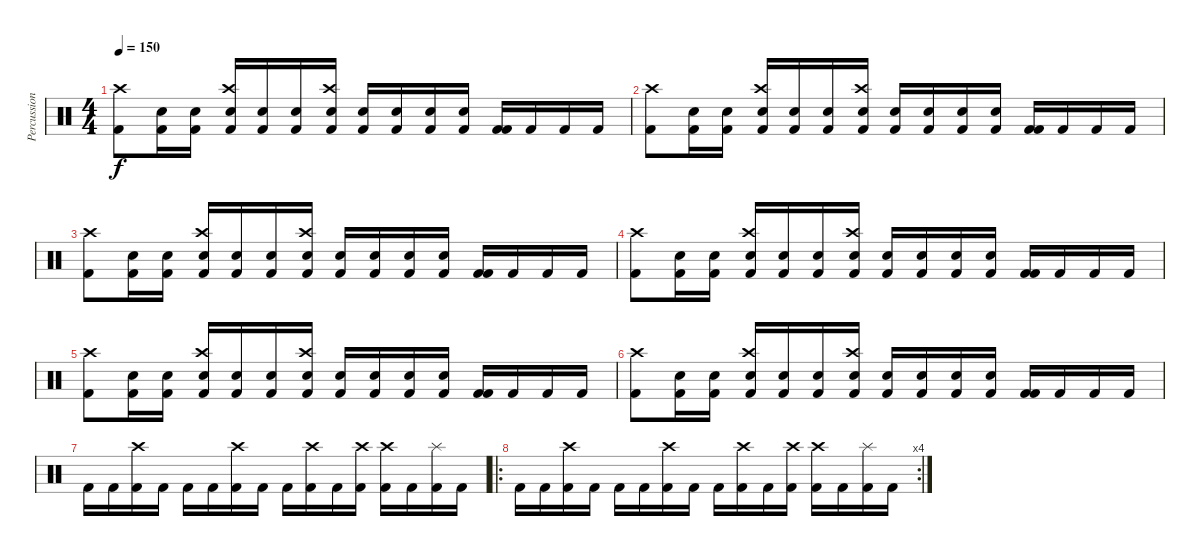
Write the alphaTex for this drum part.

\track ("Percussion" "Percussion") {instrument percussion}
\staff {score}
\articulation defaults
\ts (4 4)
\tempo 150
\clef neutral
\ks c
("Kick (hit) 2" "Crash high (hit)").8{dy f} ("Kick (hit) 2" "Snare (hit) 2").16 ("Snare (hit) 2" "Kick (hit) 2").16 ("Kick (hit) 2" "Snare (hit) 2" "Crash high (hit)").16 ("Snare (hit) 2" "Kick (hit) 2").16 ("Kick (hit) 2" "Snare (hit) 2").16 ("Snare (hit) 2" "Kick (hit) 2" "Crash high (hit)").16 ("Kick (hit) 2" "Snare (hit) 2").16 ("Kick (hit) 2" "Snare (hit) 2").16 ("Kick (hit) 2" "Snare (hit) 2").16 ("Kick (hit) 2" "Snare (hit) 2").16 ("Kick (hit) 2" "Kick (hit) 2").16 "Kick (hit) 2".16 "Kick (hit) 2".16 "Kick (hit) 2".16 |
("Kick (hit) 2" "Crash high (hit)").8 ("Kick (hit) 2" "Snare (hit) 2").16 ("Snare (hit) 2" "Kick (hit) 2").16 ("Kick (hit) 2" "Snare (hit) 2" "Crash high (hit)").16 ("Snare (hit) 2" "Kick (hit) 2").16 ("Kick (hit) 2" "Snare (hit) 2").16 ("Snare (hit) 2" "Kick (hit) 2" "Crash high (hit)").16 ("Kick (hit) 2" "Snare (hit) 2").16 ("Kick (hit) 2" "Snare (hit) 2").16 ("Kick (hit) 2" "Snare (hit) 2").16 ("Kick (hit) 2" "Snare (hit) 2").16 ("Kick (hit) 2" "Kick (hit) 2").16 "Kick (hit) 2".16 "Kick (hit) 2".16 "Kick (hit) 2".16 |
("Kick (hit) 2" "Crash high (hit)").8 ("Kick (hit) 2" "Snare (hit) 2").16 ("Snare (hit) 2" "Kick (hit) 2").16 ("Kick (hit) 2" "Snare (hit) 2" "Crash high (hit)").16 ("Snare (hit) 2" "Kick (hit) 2").16 ("Kick (hit) 2" "Snare (hit) 2").16 ("Snare (hit) 2" "Kick (hit) 2" "Crash high (hit)").16 ("Kick (hit) 2" "Snare (hit) 2").16 ("Kick (hit) 2" "Snare (hit) 2").16 ("Kick (hit) 2" "Snare (hit) 2").16 ("Kick (hit) 2" "Snare (hit) 2").16 ("Kick (hit) 2" "Kick (hit) 2").16 "Kick (hit) 2".16 "Kick (hit) 2".16 "Kick (hit) 2".16 |
("Kick (hit) 2" "Crash high (hit)").8 ("Kick (hit) 2" "Snare (hit) 2").16 ("Snare (hit) 2" "Kick (hit) 2").16 ("Kick (hit) 2" "Snare (hit) 2" "Crash high (hit)").16 ("Snare (hit) 2" "Kick (hit) 2").16 ("Kick (hit) 2" "Snare (hit) 2").16 ("Snare (hit) 2" "Kick (hit) 2" "Crash high (hit)").16 ("Kick (hit) 2" "Snare (hit) 2").16 ("Kick (hit) 2" "Snare (hit) 2").16 ("Kick (hit) 2" "Snare (hit) 2").16 ("Kick (hit) 2" "Snare (hit) 2").16 ("Kick (hit) 2" "Kick (hit) 2").16 "Kick (hit) 2".16 "Kick (hit) 2".16 "Kick (hit) 2".16 |
("Kick (hit) 2" "Crash high (hit)").8 ("Kick (hit) 2" "Snare (hit) 2").16 ("Snare (hit) 2" "Kick (hit) 2").16 ("Kick (hit) 2" "Snare (hit) 2" "Crash high (hit)").16 ("Snare (hit) 2" "Kick (hit) 2").16 ("Kick (hit) 2" "Snare (hit) 2").16 ("Snare (hit) 2" "Kick (hit) 2" "Crash high (hit)").16 ("Kick (hit) 2" "Snare (hit) 2").16 ("Kick (hit) 2" "Snare (hit) 2").16 ("Kick (hit) 2" "Snare (hit) 2").16 ("Kick (hit) 2" "Snare (hit) 2").16 ("Kick (hit) 2" "Kick (hit) 2").16 "Kick (hit) 2".16 "Kick (hit) 2".16 "Kick (hit) 2".16 |
("Kick (hit) 2" "Crash high (hit)").8 ("Kick (hit) 2" "Snare (hit) 2").16 ("Snare (hit) 2" "Kick (hit) 2").16 ("Kick (hit) 2" "Snare (hit) 2" "Crash high (hit)").16 ("Snare (hit) 2" "Kick (hit) 2").16 ("Kick (hit) 2" "Snare (hit) 2").16 ("Snare (hit) 2" "Kick (hit) 2" "Crash high (hit)").16 ("Kick (hit) 2" "Snare (hit) 2").16 ("Kick (hit) 2" "Snare (hit) 2").16 ("Kick (hit) 2" "Snare (hit) 2").16 ("Kick (hit) 2" "Snare (hit) 2").16 ("Kick (hit) 2" "Kick (hit) 2").16 "Kick (hit) 2".16 "Kick (hit) 2".16 "Kick (hit) 2".16 |
"Kick (hit) 2".16 "Kick (hit) 2".16 ("Crash high (hit)" "Kick (hit) 2").16 "Kick (hit) 2".16 "Kick (hit) 2".16 "Kick (hit) 2".16 ("Crash high (hit)" "Kick (hit) 2").16 "Kick (hit) 2".16 "Kick (hit) 2".16 ("Crash high (hit)" "Kick (hit) 2").16 "Kick (hit) 2".16 ("Crash high (hit)" "Kick (hit) 2").16 ("Crash high (hit)" "Kick (hit) 2").16 "Kick (hit) 2".16 ("Splash (hit)" "Kick (hit) 2").16 "Kick (hit) 2".16 |
\ro
\rc 4 "Kick (hit) 2".16 "Kick (hit) 2".16
("Crash high (hit)" "Kick (hit) 2").16 "Kick (hit) 2".16 "Kick (hit) 2".16 "Kick (hit) 2".16 ("Crash high (hit)" "Kick (hit) 2").16 "Kick (hit) 2".16 "Kick (hit) 2".16 ("Crash high (hit)" "Kick (hit) 2").16 "Kick (hit) 2".16 ("Crash high (hit)" "Kick (hit) 2").16 ("Crash high (hit)" "Kick (hit) 2").16 "Kick (hit) 2".16 ("Splash (hit)" "Kick (hit) 2").16 "Kick (hit) 2".16
